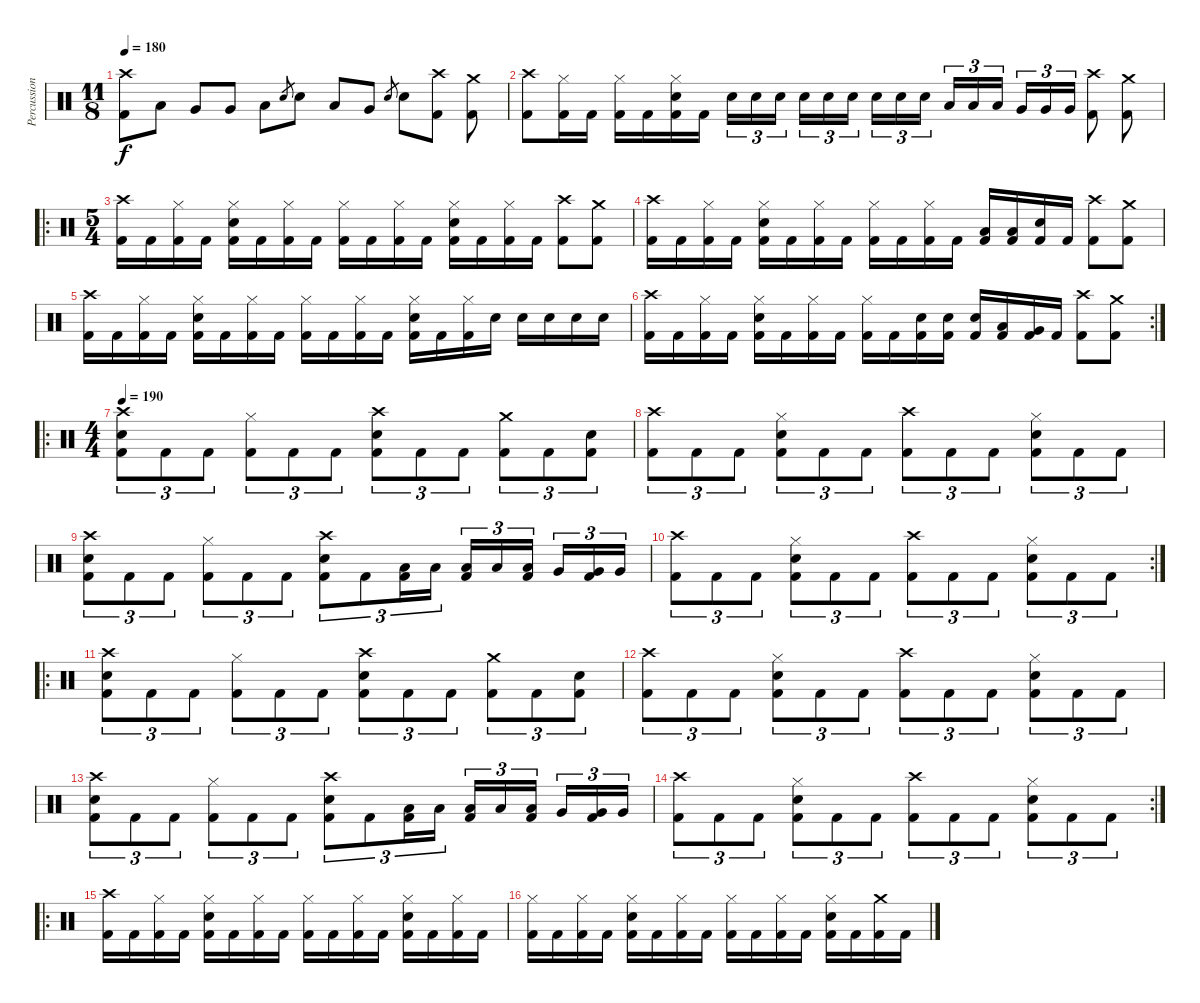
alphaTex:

\track ("Percussion" "Percussion") {instrument percussion}
\staff {score}
\articulation defaults
\ts (11 8)
\tempo 180
\clef neutral
\ks c
("Crash high (hit)" "Kick (hit) 2").8{dy f} "Low Tom (hit)".8 "Very Low Tom (hit)".8 "Very Low Tom (hit)".8 "Low Floor Tom (hit)".8 "Snare (hit) 2".8{gr} "Snare (hit) 2".8 "Low Tom (hit)".8 "Very Low Tom (hit)".8 "Snare (hit) 2".8{gr} "Snare (hit) 2".8 ("Crash high (hit)" "Kick (hit) 2").8 ("Crash medium (hit)" "Kick (hit) 2").8 |
("Crash high (hit)" "Kick (hit) 2").8 ("Hi-Hat (closed)" "Kick (hit) 2").16 "Kick (hit) 2".16 ("Hi-Hat (closed)" "Kick (hit) 2").16 "Kick (hit) 2".16 ("Hi-Hat (closed)" "Snare (hit) 2" "Kick (hit) 2").16 "Kick (hit) 2".16 "Snare (hit) 2".16{tu (3 2)} "Snare (hit) 2".16{tu (3 2)} "Snare (hit) 2".16{tu (3 2)} "Snare (hit) 2".16{tu (3 2)} "Snare (hit) 2".16{tu (3 2)} "Snare (hit) 2".16{tu (3 2)} "Snare (hit) 2".16{tu (3 2)} "Snare (hit) 2".16{tu (3 2)} "Snare (hit) 2".16{tu (3 2)} "Low Tom (hit)".16{tu (3 2)} "Low Tom (hit)".16{tu (3 2)} "Low Tom (hit)".16{tu (3 2)} "Very Low Tom (hit)".16{tu (3 2)} "Very Low Tom (hit)".16{tu (3 2)} "Very Low Tom (hit)".16{tu (3 2)} ("Crash high (hit)" "Kick (hit) 2").8 ("Crash medium (hit)" "Kick (hit) 2").8 |
\ro
\ts (5 4)
("Crash high (hit)" "Kick (hit) 2").16 "Kick (hit) 2".16 ("Hi-Hat (closed)" "Kick (hit) 2").16 "Kick (hit) 2".16 ("Hi-Hat (closed)" "Snare (hit) 2" "Kick (hit) 2").16 "Kick (hit) 2".16 ("Hi-Hat (closed)" "Kick (hit) 2").16 "Kick (hit) 2".16 ("Hi-Hat (closed)" "Kick (hit) 2").16 "Kick (hit) 2".16 ("Hi-Hat (closed)" "Kick (hit) 2").16 "Kick (hit) 2".16 ("Hi-Hat (closed)" "Snare (hit) 2" "Kick (hit) 2").16 "Kick (hit) 2".16 ("Hi-Hat (closed)" "Kick (hit) 2").16 "Kick (hit) 2".16 ("Crash high (hit)" "Kick (hit) 2").8 ("Crash medium (hit)" "Kick (hit) 2").8 |
("Crash high (hit)" "Kick (hit) 2").16 "Kick (hit) 2".16 ("Hi-Hat (closed)" "Kick (hit) 2").16 "Kick (hit) 2".16 ("Hi-Hat (closed)" "Snare (hit) 2" "Kick (hit) 2").16 "Kick (hit) 2".16 ("Hi-Hat (closed)" "Kick (hit) 2").16 "Kick (hit) 2".16 ("Hi-Hat (closed)" "Kick (hit) 2").16 "Kick (hit) 2".16 ("Hi-Hat (closed)" "Kick (hit) 2").16 "Kick (hit) 2".16 ("Low Tom (hit)" "Kick (hit) 2").16 ("Low Tom (hit)" "Kick (hit) 2").16 ("Snare (hit) 2" "Kick (hit) 2").16 "Kick (hit) 2".16 ("Crash high (hit)" "Kick (hit) 2").8 ("Crash medium (hit)" "Kick (hit) 2").8 |
("Crash high (hit)" "Kick (hit) 2").16 "Kick (hit) 2".16 ("Hi-Hat (closed)" "Kick (hit) 2").16 "Kick (hit) 2".16 ("Hi-Hat (closed)" "Snare (hit) 2" "Kick (hit) 2").16 "Kick (hit) 2".16 ("Hi-Hat (closed)" "Kick (hit) 2").16 "Kick (hit) 2".16 ("Hi-Hat (closed)" "Kick (hit) 2").16 "Kick (hit) 2".16 ("Hi-Hat (closed)" "Kick (hit) 2").16 "Kick (hit) 2".16 ("Hi-Hat (closed)" "Snare (hit) 2" "Kick (hit) 2").16 "Kick (hit) 2".16 ("Hi-Hat (closed)" "Kick (hit) 2").16 "Snare (hit) 2".16 "Snare (hit) 2".16 "Snare (hit) 2".16 "Snare (hit) 2".16 "Snare (hit) 2".16 |
\rc 2
("Crash high (hit)" "Kick (hit) 2").16 "Kick (hit) 2".16 ("Hi-Hat (closed)" "Kick (hit) 2").16 "Kick (hit) 2".16 ("Hi-Hat (closed)" "Snare (hit) 2" "Kick (hit) 2").16 "Kick (hit) 2".16 ("Hi-Hat (closed)" "Kick (hit) 2").16 "Kick (hit) 2".16 ("Hi-Hat (closed)" "Kick (hit) 2").16 "Kick (hit) 2".16 ("Snare (hit) 2" "Kick (hit) 2").16 ("Snare (hit) 2" "Kick (hit) 2").16 ("Snare (hit) 2" "Kick (hit) 2").16 ("Low Tom (hit)" "Kick (hit) 2").16 ("Very Low Tom (hit)" "Kick (hit) 2").16 "Kick (hit) 2".16 ("Crash high (hit)" "Kick (hit) 2").8 ("Crash medium (hit)" "Kick (hit) 2").8 |
\ro
\ts (4 4)
\tempo 190
("Crash high (hit)" "Snare (hit) 2" "Kick (hit) 2").8{tu (3 2)} "Kick (hit) 2".8{tu (3 2)} "Kick (hit) 2".8{tu (3 2)} ("Hi-Hat (closed)" "Kick (hit) 2").8{tu (3 2)} "Kick (hit) 2".8{tu (3 2)} "Kick (hit) 2".8{tu (3 2)} ("Crash high (hit)" "Snare (hit) 2" "Kick (hit) 2").8{tu (3 2)} "Kick (hit) 2".8{tu (3 2)} "Kick (hit) 2".8{tu (3 2)} ("Crash medium (hit)" "Kick (hit) 2").8{tu (3 2)} "Kick (hit) 2".8{tu (3 2)} ("Snare (hit) 2" "Kick (hit) 2").8{tu (3 2)} |
("Crash high (hit)" "Kick (hit) 2").8{tu (3 2)} "Kick (hit) 2".8{tu (3 2)} "Kick (hit) 2".8{tu (3 2)} ("Hi-Hat (closed)" "Snare (hit) 2" "Kick (hit) 2").8{tu (3 2)} "Kick (hit) 2".8{tu (3 2)} "Kick (hit) 2".8{tu (3 2)} ("Crash high (hit)" "Kick (hit) 2").8{tu (3 2)} "Kick (hit) 2".8{tu (3 2)} "Kick (hit) 2".8{tu (3 2)} ("Hi-Hat (closed)" "Snare (hit) 2" "Kick (hit) 2").8{tu (3 2)} "Kick (hit) 2".8{tu (3 2)} "Kick (hit) 2".8{tu (3 2)} |
("Crash high (hit)" "Snare (hit) 2" "Kick (hit) 2").8{tu (3 2)} "Kick (hit) 2".8{tu (3 2)} "Kick (hit) 2".8{tu (3 2)} ("Hi-Hat (closed)" "Kick (hit) 2").8{tu (3 2)} "Kick (hit) 2".8{tu (3 2)} "Kick (hit) 2".8{tu (3 2)} ("Crash high (hit)" "Snare (hit) 2" "Kick (hit) 2").8{tu (3 2)} "Kick (hit) 2".8{tu (3 2)} ("Low Tom (hit)" "Kick (hit) 2").16{tu (3 2)} "Low Tom (hit)".16{tu (3 2)} ("Low Tom (hit)" "Kick (hit) 2").16{tu (3 2)} "Low Tom (hit)".16{tu (3 2)} ("Low Tom (hit)" "Kick (hit) 2").16{tu (3 2)} "Very Low Tom (hit)".16{tu (3 2)} ("Very Low Tom (hit)" "Kick (hit) 2").16{tu (3 2)} "Very Low Tom (hit)".16{tu (3 2)} |
\rc 2
("Crash high (hit)" "Kick (hit) 2").8{tu (3 2)} "Kick (hit) 2".8{tu (3 2)} "Kick (hit) 2".8{tu (3 2)} ("Hi-Hat (closed)" "Snare (hit) 2" "Kick (hit) 2").8{tu (3 2)} "Kick (hit) 2".8{tu (3 2)} "Kick (hit) 2".8{tu (3 2)} ("Crash high (hit)" "Kick (hit) 2").8{tu (3 2)} "Kick (hit) 2".8{tu (3 2)} "Kick (hit) 2".8{tu (3 2)} ("Hi-Hat (closed)" "Snare (hit) 2" "Kick (hit) 2").8{tu (3 2)} "Kick (hit) 2".8{tu (3 2)} "Kick (hit) 2".8{tu (3 2)} |
\ro
("Crash high (hit)" "Snare (hit) 2" "Kick (hit) 2").8{tu (3 2)} "Kick (hit) 2".8{tu (3 2)} "Kick (hit) 2".8{tu (3 2)} ("Hi-Hat (closed)" "Kick (hit) 2").8{tu (3 2)} "Kick (hit) 2".8{tu (3 2)} "Kick (hit) 2".8{tu (3 2)} ("Crash high (hit)" "Snare (hit) 2" "Kick (hit) 2").8{tu (3 2)} "Kick (hit) 2".8{tu (3 2)} "Kick (hit) 2".8{tu (3 2)} ("Crash medium (hit)" "Kick (hit) 2").8{tu (3 2)} "Kick (hit) 2".8{tu (3 2)} ("Snare (hit) 2" "Kick (hit) 2").8{tu (3 2)} |
("Crash high (hit)" "Kick (hit) 2").8{tu (3 2)} "Kick (hit) 2".8{tu (3 2)} "Kick (hit) 2".8{tu (3 2)} ("Hi-Hat (closed)" "Snare (hit) 2" "Kick (hit) 2").8{tu (3 2)} "Kick (hit) 2".8{tu (3 2)} "Kick (hit) 2".8{tu (3 2)} ("Crash high (hit)" "Kick (hit) 2").8{tu (3 2)} "Kick (hit) 2".8{tu (3 2)} "Kick (hit) 2".8{tu (3 2)} ("Hi-Hat (closed)" "Snare (hit) 2" "Kick (hit) 2").8{tu (3 2)} "Kick (hit) 2".8{tu (3 2)} "Kick (hit) 2".8{tu (3 2)} |
("Crash high (hit)" "Snare (hit) 2" "Kick (hit) 2").8{tu (3 2)} "Kick (hit) 2".8{tu (3 2)} "Kick (hit) 2".8{tu (3 2)} ("Hi-Hat (closed)" "Kick (hit) 2").8{tu (3 2)} "Kick (hit) 2".8{tu (3 2)} "Kick (hit) 2".8{tu (3 2)} ("Crash high (hit)" "Snare (hit) 2" "Kick (hit) 2").8{tu (3 2)} "Kick (hit) 2".8{tu (3 2)} ("Low Tom (hit)" "Kick (hit) 2").16{tu (3 2)} "Low Tom (hit)".16{tu (3 2)} ("Low Tom (hit)" "Kick (hit) 2").16{tu (3 2)} "Low Tom (hit)".16{tu (3 2)} ("Low Tom (hit)" "Kick (hit) 2").16{tu (3 2)} "Very Low Tom (hit)".16{tu (3 2)} ("Very Low Tom (hit)" "Kick (hit) 2").16{tu (3 2)} "Very Low Tom (hit)".16{tu (3 2)} |
\rc 2
("Crash high (hit)" "Kick (hit) 2").8{tu (3 2)} "Kick (hit) 2".8{tu (3 2)} "Kick (hit) 2".8{tu (3 2)} ("Hi-Hat (closed)" "Snare (hit) 2" "Kick (hit) 2").8{tu (3 2)} "Kick (hit) 2".8{tu (3 2)} "Kick (hit) 2".8{tu (3 2)} ("Crash high (hit)" "Kick (hit) 2").8{tu (3 2)} "Kick (hit) 2".8{tu (3 2)} "Kick (hit) 2".8{tu (3 2)} ("Hi-Hat (closed)" "Snare (hit) 2" "Kick (hit) 2").8{tu (3 2)} "Kick (hit) 2".8{tu (3 2)} "Kick (hit) 2".8{tu (3 2)} |
\ro
("Crash high (hit)" "Kick (hit) 2").16 "Kick (hit) 2".16 ("Hi-Hat (closed)" "Kick (hit) 2").16 "Kick (hit) 2".16 ("Hi-Hat (closed)" "Snare (hit) 2" "Kick (hit) 2").16 "Kick (hit) 2".16 ("Hi-Hat (closed)" "Kick (hit) 2").16 "Kick (hit) 2".16 ("Hi-Hat (closed)" "Kick (hit) 2").16 "Kick (hit) 2".16 ("Hi-Hat (closed)" "Kick (hit) 2").16 "Kick (hit) 2".16 ("Hi-Hat (closed)" "Snare (hit) 2" "Kick (hit) 2").16 "Kick (hit) 2".16 ("Hi-Hat (closed)" "Kick (hit) 2").16 "Kick (hit) 2".16 |
("Hi-Hat (closed)" "Kick (hit) 2").16 "Kick (hit) 2".16 ("Hi-Hat (closed)" "Kick (hit) 2").16 "Kick (hit) 2".16 ("Hi-Hat (closed)" "Snare (hit) 2" "Kick (hit) 2").16 "Kick (hit) 2".16 ("Hi-Hat (closed)" "Kick (hit) 2").16 "Kick (hit) 2".16 ("Hi-Hat (closed)" "Kick (hit) 2").16 "Kick (hit) 2".16 ("Hi-Hat (closed)" "Kick (hit) 2").16 "Kick (hit) 2".16 ("Hi-Hat (closed)" "Snare (hit) 2" "Kick (hit) 2").16 "Kick (hit) 2".16 ("Crash medium (hit)" "Kick (hit) 2").16 "Kick (hit) 2".16
